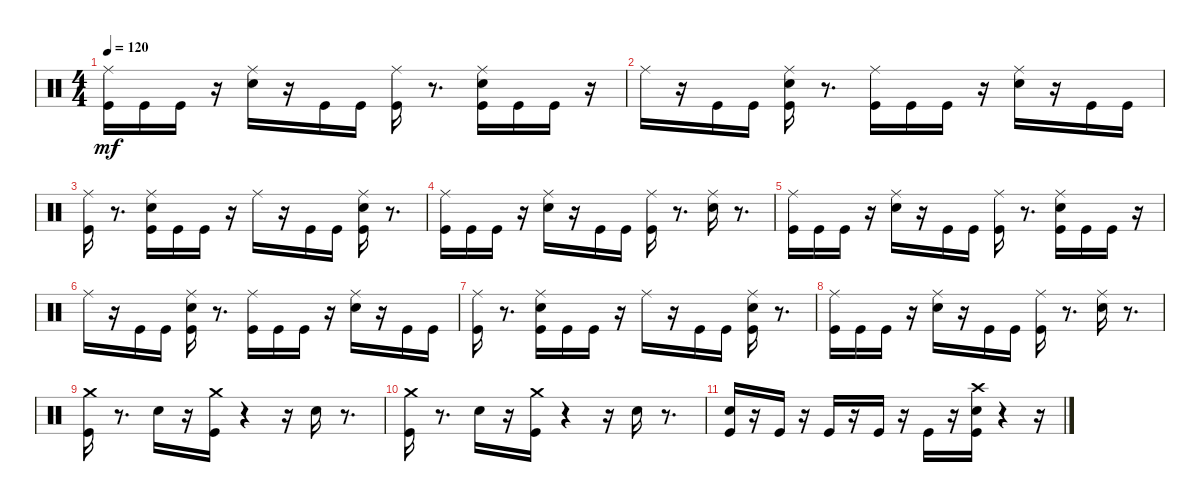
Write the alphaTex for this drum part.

\track "" {instrument percussion}
\staff {score}
\articulation defaults
\ts (4 4)
\tempo 120
\clef neutral
\ks c
("Ride (middle)" "Kick (hit)").16{dy mf} "Kick (hit)".16 "Kick (hit)".16 r.16 ("Ride (middle)" "Snare (hit) 2").16 r.16 "Kick (hit)".16 "Kick (hit)".16 ("Ride (middle)" "Kick (hit)").16 r.8{d} ("Ride (middle)" "Snare (hit) 2" "Kick (hit)").16 "Kick (hit)".16 "Kick (hit)".16 r.16 |
"Ride (middle)".16 r.16 "Kick (hit)".16 "Kick (hit)".16 ("Ride (middle)" "Snare (hit) 2" "Kick (hit)").16 r.8{d} ("Ride (middle)" "Kick (hit)").16 "Kick (hit)".16 "Kick (hit)".16 r.16 ("Ride (middle)" "Snare (hit) 2").16 r.16 "Kick (hit)".16 "Kick (hit)".16 |
("Ride (middle)" "Kick (hit)").16 r.8{d} ("Ride (middle)" "Snare (hit) 2" "Kick (hit)").16 "Kick (hit)".16 "Kick (hit)".16 r.16 "Ride (middle)".16 r.16 "Kick (hit)".16 "Kick (hit)".16 ("Ride (middle)" "Snare (hit) 2" "Kick (hit)").16 r.8{d} |
("Ride (middle)" "Kick (hit)").16 "Kick (hit)".16 "Kick (hit)".16 r.16 ("Ride (middle)" "Snare (hit) 2").16 r.16 "Kick (hit)".16 "Kick (hit)".16 ("Ride (middle)" "Kick (hit)").16 r.8{d} ("Ride (middle)" "Snare (hit) 2").16 r.8{d} |
("Ride (middle)" "Kick (hit)").16 "Kick (hit)".16 "Kick (hit)".16 r.16 ("Ride (middle)" "Snare (hit) 2").16 r.16 "Kick (hit)".16 "Kick (hit)".16 ("Ride (middle)" "Kick (hit)").16 r.8{d} ("Ride (middle)" "Snare (hit) 2" "Kick (hit)").16 "Kick (hit)".16 "Kick (hit)".16 r.16 |
"Ride (middle)".16 r.16 "Kick (hit)".16 "Kick (hit)".16 ("Ride (middle)" "Snare (hit) 2" "Kick (hit)").16 r.8{d} ("Ride (middle)" "Kick (hit)").16 "Kick (hit)".16 "Kick (hit)".16 r.16 ("Ride (middle)" "Snare (hit) 2").16 r.16 "Kick (hit)".16 "Kick (hit)".16 |
("Ride (middle)" "Kick (hit)").16 r.8{d} ("Ride (middle)" "Snare (hit) 2" "Kick (hit)").16 "Kick (hit)".16 "Kick (hit)".16 r.16 "Ride (middle)".16 r.16 "Kick (hit)".16 "Kick (hit)".16 ("Ride (middle)" "Snare (hit) 2" "Kick (hit)").16 r.8{d} |
("Ride (middle)" "Kick (hit)").16 "Kick (hit)".16 "Kick (hit)".16 r.16 ("Ride (middle)" "Snare (hit) 2").16 r.16 "Kick (hit)".16 "Kick (hit)".16 ("Ride (middle)" "Kick (hit)").16 r.8{d} ("Ride (middle)" "Snare (hit) 2").16 r.8{d} |
("Crash medium (hit)" "Kick (hit)").16 r.8{d} "Snare (hit) 2".16 r.16 ("Crash medium (hit)" "Kick (hit)").16 r.4 r.16 "Snare (hit) 2".16 r.8{d} |
("Crash medium (hit)" "Kick (hit)").16 r.8{d} "Snare (hit) 2".16 r.16 ("Crash medium (hit)" "Kick (hit)").16 r.4 r.16 "Snare (hit) 2".16 r.8{d} |
("Snare (hit) 2" "Kick (hit)").16 r.16 "Kick (hit)".16 r.16 "Kick (hit)".16 r.16 "Kick (hit)".16 r.16 "Kick (hit)".16 r.16 ("Crash high (hit)" "Snare (hit) 2" "Kick (hit)").16 r.4 r.16
